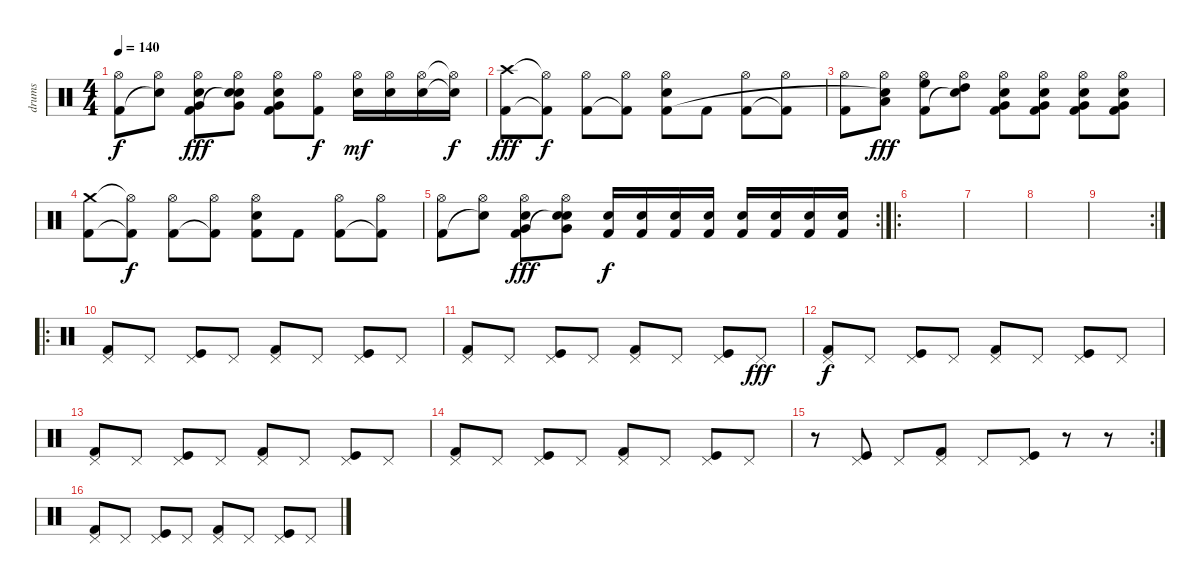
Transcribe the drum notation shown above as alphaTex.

\track ("drums" "drums") {instrument percussion}
\staff {score}
\articulation defaults
\ts (4 4)
\tempo 140
\clef neutral
\ks c
("Hi-Hat (open)" "Kick (hit) 2").8{dy f} ("Hi-Hat (open)" "Snare (hit)"{t}).8 ("Hi-Hat (open)" "Very Low Tom (hit)" "Electric Snare (hit)" "Kick (hit) 2").8{dy fff} ("Hi-Hat (open)" "Very Low Tom (hit)" "Electric Snare (hit)" "Snare (hit)"{t}).8 ("Hi-Hat (open)" "Very Low Tom (hit)" "Electric Snare (hit)" "Kick (hit) 2").8 ("Hi-Hat (open)" "Kick (hit) 2").8{dy f} ("Hi-Hat (open)" "Electric Snare (hit)").16{dy mf} ("Hi-Hat (open)" "Electric Snare (hit)").16 ("Hi-Hat (open)" "Electric Snare (hit)").16 ("Hi-Hat (open)"{t} "Electric Snare (hit)"{t}).16{dy f} |
("Crash high (hit)" "Kick (hit) 2").8{dy fff} ("Hi-Hat (open)"{t} "Kick (hit) 2"{t}).8{dy f} ("Hi-Hat (open)" "Kick (hit) 2").8 ("Hi-Hat (open)" "Kick (hit) 2"{t}).8 ("Hi-Hat (open)" "Electric Snare (hit)" "Kick (hit) 2").8 "Kick (hit) 2".8 ("Hi-Hat (open)" "Kick (hit) 2").8 ("Hi-Hat (open)" "Kick (hit) 2"{t}).8 |
("Hi-Hat (open)" "Kick (hit) 2").8 ("Hi-Hat (open)" "Low Tom (hit)" "Snare (hit)"{t}).8{dy fff} ("Hi-Hat (open)" "High Floor Tom (hit)" "Kick (hit) 2").8 ("Hi-Hat (open)" "High Tom (hit)" "Snare (hit)"{t}).8 ("Hi-Hat (open)" "Very Low Tom (hit)" "Electric Snare (hit)" "Kick (hit) 2").8 ("Hi-Hat (open)" "Very Low Tom (hit)" "Electric Snare (hit)" "Kick (hit) 2").8 ("Hi-Hat (open)" "Very Low Tom (hit)" "Electric Snare (hit)" "Kick (hit) 2").8 ("Hi-Hat (open)" "Very Low Tom (hit)" "Electric Snare (hit)" "Kick (hit) 2").8 |
("Crash medium (hit)" "Kick (hit) 2").8 ("Hi-Hat (open)"{t} "Kick (hit) 2"{t}).8{dy f} ("Hi-Hat (open)" "Kick (hit) 2").8 ("Hi-Hat (open)" "Kick (hit) 2"{t}).8 ("Hi-Hat (open)" "Electric Snare (hit)" "Kick (hit) 2").8 "Kick (hit) 2".8 ("Hi-Hat (open)" "Kick (hit) 2").8 ("Hi-Hat (open)" "Kick (hit) 2"{t}).8 |
\rc 2
("Hi-Hat (open)" "Kick (hit) 2").8 ("Hi-Hat (open)" "Snare (hit)"{t}).8 ("Hi-Hat (open)" "Very Low Tom (hit)" "Electric Snare (hit)" "Kick (hit) 2").8{dy fff} ("Hi-Hat (open)" "Very Low Tom (hit)" "Electric Snare (hit)" "Snare (hit)"{t}).8 ("Electric Snare (hit)" "Kick (hit) 2").16{dy f} ("Electric Snare (hit)" "Kick (hit) 2").16 ("Electric Snare (hit)" "Kick (hit) 2").16 ("Electric Snare (hit)" "Kick (hit) 2").16 ("Electric Snare (hit)" "Kick (hit) 2").16 ("Electric Snare (hit)" "Kick (hit) 2").16 ("Electric Snare (hit)" "Kick (hit) 2").16 ("Electric Snare (hit)" "Kick (hit) 2").16 |
\ro
|
|
|
\rc 2
|
\ro
("Pedal Hi-Hat (hit)" "Kick (hit) 2").8 "Pedal Hi-Hat (hit)".8 ("Pedal Hi-Hat (hit)" "Kick (hit)").8 "Pedal Hi-Hat (hit)".8 ("Pedal Hi-Hat (hit)" "Kick (hit) 2").8 "Pedal Hi-Hat (hit)".8 ("Pedal Hi-Hat (hit)" "Kick (hit)").8 "Pedal Hi-Hat (hit)".8 |
("Pedal Hi-Hat (hit)" "Kick (hit) 2").8 "Pedal Hi-Hat (hit)".8 ("Pedal Hi-Hat (hit)" "Kick (hit)").8 "Pedal Hi-Hat (hit)".8 ("Pedal Hi-Hat (hit)" "Kick (hit) 2").8 "Pedal Hi-Hat (hit)".8 ("Pedal Hi-Hat (hit)" "Kick (hit)").8 "Pedal Hi-Hat (hit)".8{dy fff} |
("Pedal Hi-Hat (hit)" "Kick (hit) 2").8{dy f} "Pedal Hi-Hat (hit)".8 ("Pedal Hi-Hat (hit)" "Kick (hit)").8 "Pedal Hi-Hat (hit)".8 ("Pedal Hi-Hat (hit)" "Kick (hit) 2").8 "Pedal Hi-Hat (hit)".8 ("Pedal Hi-Hat (hit)" "Kick (hit)").8 "Pedal Hi-Hat (hit)".8 |
("Pedal Hi-Hat (hit)" "Kick (hit) 2").8 "Pedal Hi-Hat (hit)".8 ("Pedal Hi-Hat (hit)" "Kick (hit)").8 "Pedal Hi-Hat (hit)".8 ("Pedal Hi-Hat (hit)" "Kick (hit) 2").8 "Pedal Hi-Hat (hit)".8 ("Pedal Hi-Hat (hit)" "Kick (hit)").8 "Pedal Hi-Hat (hit)".8 |
("Pedal Hi-Hat (hit)" "Kick (hit) 2").8 "Pedal Hi-Hat (hit)".8 ("Pedal Hi-Hat (hit)" "Kick (hit)").8 "Pedal Hi-Hat (hit)".8 ("Pedal Hi-Hat (hit)" "Kick (hit) 2").8 "Pedal Hi-Hat (hit)".8 ("Pedal Hi-Hat (hit)" "Kick (hit)").8 "Pedal Hi-Hat (hit)".8 |
\rc 2
r.8 ("Pedal Hi-Hat (hit)" "Kick (hit)").8 "Pedal Hi-Hat (hit)".8 ("Pedal Hi-Hat (hit)" "Kick (hit) 2").8 "Pedal Hi-Hat (hit)".8 ("Pedal Hi-Hat (hit)" "Kick (hit)").8 r.8 r.8 |
("Pedal Hi-Hat (hit)" "Kick (hit) 2").8 "Pedal Hi-Hat (hit)".8 ("Pedal Hi-Hat (hit)" "Kick (hit)").8 "Pedal Hi-Hat (hit)".8 ("Pedal Hi-Hat (hit)" "Kick (hit) 2").8 "Pedal Hi-Hat (hit)".8 ("Pedal Hi-Hat (hit)" "Kick (hit)").8 "Pedal Hi-Hat (hit)".8
